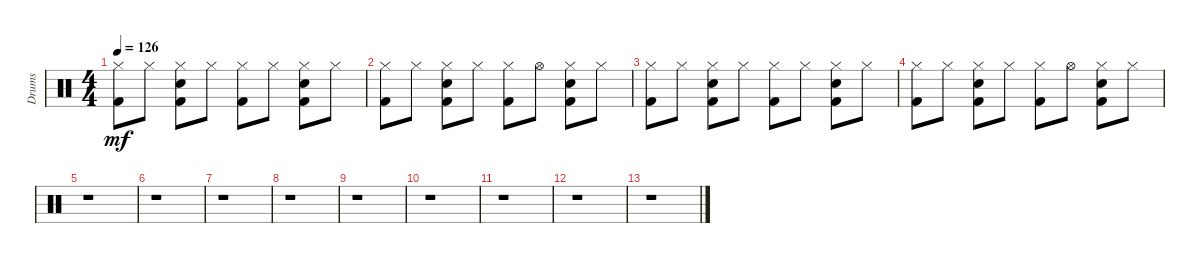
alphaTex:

\track ("Drums" "Drums") {instrument percussion}
\staff {score}
\articulation defaults
\ts (4 4)
\tempo 126
\clef neutral
\ks c
("Hi-Hat (closed)" "Kick (hit) 2").8{dy mf} "Hi-Hat (closed)".8 ("Hi-Hat (closed)" "Snare (hit) 2" "Kick (hit) 2").8 "Hi-Hat (closed)".8 ("Hi-Hat (closed)" "Kick (hit) 2").8 "Hi-Hat (closed)".8 ("Hi-Hat (closed)" "Snare (hit) 2" "Kick (hit) 2").8 "Hi-Hat (closed)".8 |
("Hi-Hat (closed)" "Kick (hit) 2").8 "Hi-Hat (closed)".8 ("Hi-Hat (closed)" "Snare (hit) 2" "Kick (hit) 2").8 "Hi-Hat (closed)".8 ("Hi-Hat (closed)" "Kick (hit) 2").8 "Hi-Hat (open)".8 ("Hi-Hat (closed)" "Snare (hit) 2" "Kick (hit) 2").8 "Hi-Hat (closed)".8 |
("Hi-Hat (closed)" "Kick (hit) 2").8 "Hi-Hat (closed)".8 ("Hi-Hat (closed)" "Snare (hit) 2" "Kick (hit) 2").8 "Hi-Hat (closed)".8 ("Hi-Hat (closed)" "Kick (hit) 2").8 "Hi-Hat (closed)".8 ("Hi-Hat (closed)" "Snare (hit) 2" "Kick (hit) 2").8 "Hi-Hat (closed)".8 |
("Hi-Hat (closed)" "Kick (hit) 2").8 "Hi-Hat (closed)".8 ("Hi-Hat (closed)" "Snare (hit) 2" "Kick (hit) 2").8 "Hi-Hat (closed)".8 ("Hi-Hat (closed)" "Kick (hit) 2").8 "Hi-Hat (open)".8 ("Hi-Hat (closed)" "Snare (hit) 2" "Kick (hit) 2").8 "Hi-Hat (closed)".8 |
r.1 |
r.1 |
r.1 |
r.1 |
r.1 |
r.1 |
r.1 |
r.1 |
r.1
